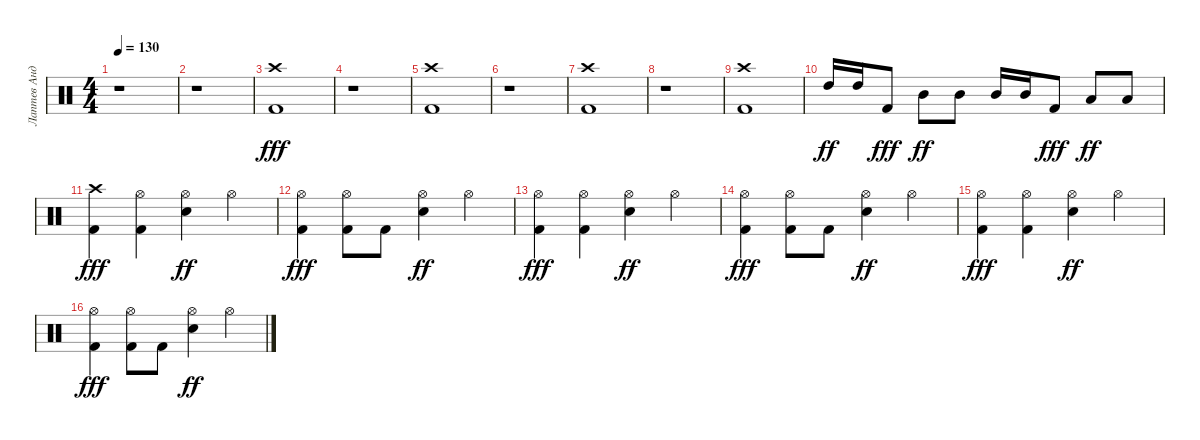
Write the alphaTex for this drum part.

\track ("Лаптев Андрей" "Лаптев Анд") {instrument percussion}
\staff {score}
\articulation defaults
\ts (4 4)
\tempo 130
\clef neutral
\ks c
r.1{dy fff} |
r.1 |
("Crash high (hit)" "Kick (hit) 2").1 |
r.1 |
("Crash high (hit)" "Kick (hit) 2").1 |
r.1 |
("Crash high (hit)" "Kick (hit) 2").1 |
r.1 |
("Crash high (hit)" "Kick (hit) 2").1 |
"High Tom (hit)".16{dy ff} "High Tom (hit)".16 "Kick (hit) 2".8{dy fff} "Mid Tom (hit)".8{dy ff} "Mid Tom (hit)".8 "Mid Tom (hit)".16 "Mid Tom (hit)".16 "Kick (hit) 2".8{dy fff} "Low Tom (hit)".8{dy ff} "Low Tom (hit)".8 |
("Crash high (hit)" "Kick (hit) 2").4{dy fff} ("Hi-Hat (open)" "Kick (hit) 2").4 ("Electric Snare (hit)" "Hi-Hat (open)").4{dy ff} "Hi-Hat (open)".4 |
("Hi-Hat (open)" "Kick (hit) 2").4{dy fff} ("Hi-Hat (open)" "Kick (hit) 2").8 "Kick (hit) 2".8 ("Electric Snare (hit)" "Hi-Hat (open)").4{dy ff} "Hi-Hat (open)".4 |
("Hi-Hat (open)" "Kick (hit) 2").4{dy fff} ("Hi-Hat (open)" "Kick (hit) 2").4 ("Electric Snare (hit)" "Hi-Hat (open)").4{dy ff} "Hi-Hat (open)".4 |
("Hi-Hat (open)" "Kick (hit) 2").4{dy fff} ("Hi-Hat (open)" "Kick (hit) 2").8 "Kick (hit) 2".8 ("Hi-Hat (open)" "Electric Snare (hit)").4{dy ff} "Hi-Hat (open)".4 |
("Hi-Hat (open)" "Kick (hit) 2").4{dy fff} ("Hi-Hat (open)" "Kick (hit) 2").4 ("Electric Snare (hit)" "Hi-Hat (open)").4{dy ff} "Hi-Hat (open)".4 |
("Hi-Hat (open)" "Kick (hit) 2").4{dy fff} ("Hi-Hat (open)" "Kick (hit) 2").8 "Kick (hit) 2".8 ("Electric Snare (hit)" "Hi-Hat (open)").4{dy ff} "Hi-Hat (open)".4
